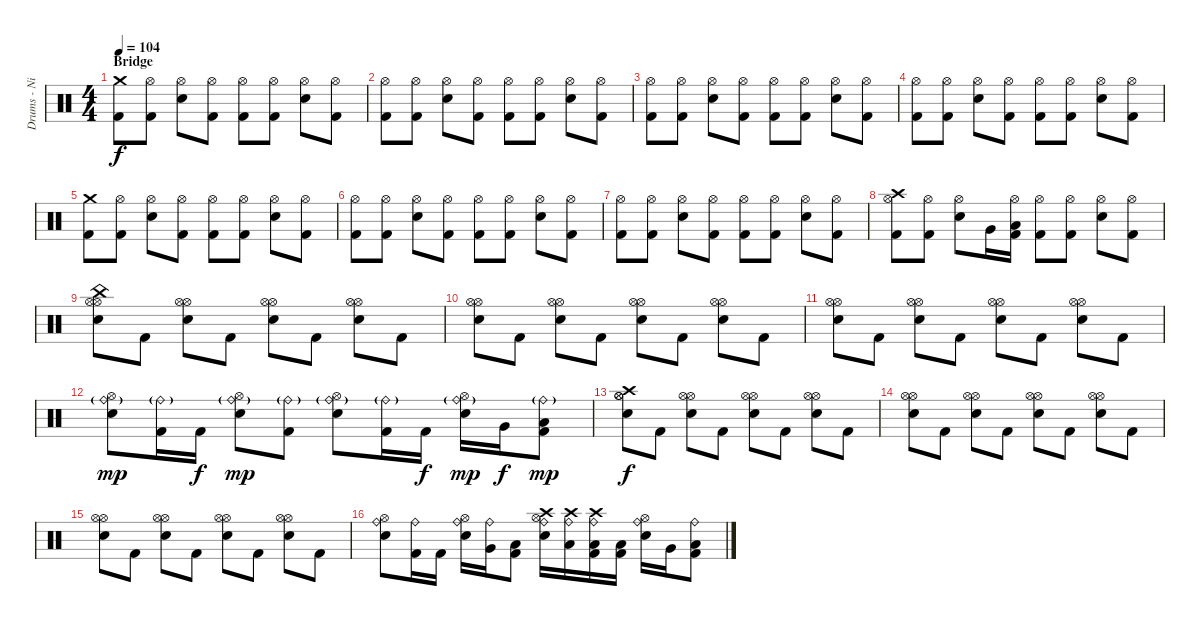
\track ("Drums - Nick Jago" "Drums - Ni") {instrument percussion}
\staff {score}
\articulation defaults
\ts (4 4)
\section ("" "Bridge")
\tempo 104
\clef neutral
\ks c
("Crash medium (hit)" "Kick (hit) 2").8{dy f} ("Hi-Hat (open)" "Kick (hit) 2").8 ("Hi-Hat (open)" "Electric Snare (hit)").8 ("Hi-Hat (open)" "Kick (hit) 2").8 ("Hi-Hat (open)" "Kick (hit) 2").8 ("Hi-Hat (open)" "Kick (hit) 2").8 ("Hi-Hat (open)" "Electric Snare (hit)").8 ("Hi-Hat (open)" "Kick (hit) 2").8 |
("Hi-Hat (open)" "Kick (hit) 2").8 ("Hi-Hat (open)" "Kick (hit) 2").8 ("Hi-Hat (open)" "Electric Snare (hit)").8 ("Hi-Hat (open)" "Kick (hit) 2").8 ("Hi-Hat (open)" "Kick (hit) 2").8 ("Hi-Hat (open)" "Kick (hit) 2").8 ("Hi-Hat (open)" "Electric Snare (hit)").8 ("Hi-Hat (open)" "Kick (hit) 2").8 |
("Hi-Hat (open)" "Kick (hit) 2").8 ("Hi-Hat (open)" "Kick (hit) 2").8 ("Hi-Hat (open)" "Electric Snare (hit)").8 ("Hi-Hat (open)" "Kick (hit) 2").8 ("Hi-Hat (open)" "Kick (hit) 2").8 ("Hi-Hat (open)" "Kick (hit) 2").8 ("Hi-Hat (open)" "Electric Snare (hit)").8 ("Hi-Hat (open)" "Kick (hit) 2").8 |
("Hi-Hat (open)" "Kick (hit) 2").8 ("Hi-Hat (open)" "Kick (hit) 2").8 ("Hi-Hat (open)" "Electric Snare (hit)").8 ("Hi-Hat (open)" "Kick (hit) 2").8 ("Hi-Hat (open)" "Kick (hit) 2").8 ("Hi-Hat (open)" "Kick (hit) 2").8 ("Hi-Hat (open)" "Electric Snare (hit)").8 ("Hi-Hat (open)" "Kick (hit) 2").8 |
("Crash medium (hit)" "Kick (hit) 2").8 ("Hi-Hat (open)" "Kick (hit) 2").8 ("Hi-Hat (open)" "Electric Snare (hit)").8 ("Hi-Hat (open)" "Kick (hit) 2").8 ("Hi-Hat (open)" "Kick (hit) 2").8 ("Hi-Hat (open)" "Kick (hit) 2").8 ("Hi-Hat (open)" "Electric Snare (hit)").8 ("Hi-Hat (open)" "Kick (hit) 2").8 |
("Hi-Hat (open)" "Kick (hit) 2").8 ("Hi-Hat (open)" "Kick (hit) 2").8 ("Hi-Hat (open)" "Electric Snare (hit)").8 ("Hi-Hat (open)" "Kick (hit) 2").8 ("Hi-Hat (open)" "Kick (hit) 2").8 ("Hi-Hat (open)" "Kick (hit) 2").8 ("Hi-Hat (open)" "Electric Snare (hit)").8 ("Hi-Hat (open)" "Kick (hit) 2").8 |
("Hi-Hat (open)" "Kick (hit) 2").8 ("Hi-Hat (open)" "Kick (hit) 2").8 ("Hi-Hat (open)" "Electric Snare (hit)").8 ("Hi-Hat (open)" "Kick (hit) 2").8 ("Hi-Hat (open)" "Kick (hit) 2").8 ("Hi-Hat (open)" "Kick (hit) 2").8 ("Hi-Hat (open)" "Electric Snare (hit)").8 ("Hi-Hat (open)" "Kick (hit) 2").8 |
("Hi-Hat (open)" "Crash high (hit)" "Kick (hit) 2").8 ("Hi-Hat (open)" "Kick (hit) 2").8 ("Hi-Hat (open)" "Electric Snare (hit)").8 "Very Low Tom (hit)".16 ("Hi-Hat (open)" "Low Floor Tom (hit)" "Kick (hit) 2").16 ("Hi-Hat (open)" "Kick (hit) 2").8 ("Hi-Hat (open)" "Kick (hit) 2").8 ("Hi-Hat (open)" "Electric Snare (hit)").8 ("Hi-Hat (open)" "Kick (hit) 2").8 |
("Hi-Hat (open)" "Hi-Hat (open)" "China (hit)" "Electric Snare (hit)").8 "Kick (hit) 2".8 ("Hi-Hat (open)" "Hi-Hat (open)" "Electric Snare (hit)").8 "Kick (hit) 2".8 ("Hi-Hat (open)" "Hi-Hat (open)" "Electric Snare (hit)").8 "Kick (hit) 2".8 ("Hi-Hat (open)" "Hi-Hat (open)" "Electric Snare (hit)").8 "Kick (hit) 2".8 |
("Hi-Hat (open)" "Hi-Hat (open)" "Electric Snare (hit)").8 "Kick (hit) 2".8 ("Hi-Hat (open)" "Hi-Hat (open)" "Electric Snare (hit)").8 "Kick (hit) 2".8 ("Hi-Hat (open)" "Hi-Hat (open)" "Electric Snare (hit)").8 "Kick (hit) 2".8 ("Hi-Hat (open)" "Hi-Hat (open)" "Electric Snare (hit)").8 "Kick (hit) 2".8 |
("Hi-Hat (open)" "Hi-Hat (open)" "Electric Snare (hit)").8 "Kick (hit) 2".8 ("Hi-Hat (open)" "Hi-Hat (open)" "Electric Snare (hit)").8 "Kick (hit) 2".8 ("Hi-Hat (open)" "Hi-Hat (open)" "Electric Snare (hit)").8 "Kick (hit) 2".8 ("Hi-Hat (open)" "Hi-Hat (open)" "Electric Snare (hit)").8 "Kick (hit) 2".8 |
("Hi-Hat (open)" "Ride (bell)"{g} "Electric Snare (hit)").8{dy mp} ("Ride (bell)"{g} "Kick (hit) 2").16 "Kick (hit) 2".16{dy f} ("Hi-Hat (open)" "Ride (bell)"{g} "Electric Snare (hit)").8{dy mp} ("Ride (bell)"{g} "Kick (hit) 2").8 ("Hi-Hat (open)" "Ride (bell)"{g} "Electric Snare (hit)").8 ("Ride (bell)"{g} "Kick (hit) 2").16 "Kick (hit) 2".16{dy f} ("Hi-Hat (open)" "Ride (bell)"{g} "Electric Snare (hit)").16{dy mp} "Very Low Tom (hit)".16{dy f} ("Ride (bell)"{g} "Low Floor Tom (hit)" "Kick (hit) 2").8{dy mp} |
("Hi-Hat (open)" "Hi-Hat (open)" "Crash high (hit)" "Electric Snare (hit)").8{dy f} "Kick (hit) 2".8 ("Hi-Hat (open)" "Hi-Hat (open)" "Electric Snare (hit)").8 "Kick (hit) 2".8 ("Hi-Hat (open)" "Hi-Hat (open)" "Electric Snare (hit)").8 "Kick (hit) 2".8 ("Hi-Hat (open)" "Hi-Hat (open)" "Electric Snare (hit)").8 "Kick (hit) 2".8 |
("Hi-Hat (open)" "Hi-Hat (open)" "Electric Snare (hit)").8 "Kick (hit) 2".8 ("Hi-Hat (open)" "Hi-Hat (open)" "Electric Snare (hit)").8 "Kick (hit) 2".8 ("Hi-Hat (open)" "Hi-Hat (open)" "Electric Snare (hit)").8 "Kick (hit) 2".8 ("Hi-Hat (open)" "Hi-Hat (open)" "Electric Snare (hit)").8 "Kick (hit) 2".8 |
("Hi-Hat (open)" "Hi-Hat (open)" "Electric Snare (hit)").8 "Kick (hit) 2".8 ("Hi-Hat (open)" "Hi-Hat (open)" "Electric Snare (hit)").8 "Kick (hit) 2".8 ("Hi-Hat (open)" "Hi-Hat (open)" "Electric Snare (hit)").8 "Kick (hit) 2".8 ("Hi-Hat (open)" "Hi-Hat (open)" "Electric Snare (hit)").8 "Kick (hit) 2".8 |
("Hi-Hat (open)" "Ride (bell)" "Electric Snare (hit)").8 ("Ride (bell)" "Kick (hit) 2").16 "Kick (hit) 2".16 ("Hi-Hat (open)" "Ride (bell)" "Electric Snare (hit)").16 ("Ride (bell)" "Very Low Tom (hit)").16 ("Low Floor Tom (hit)" "Kick (hit) 2").8 ("Hi-Hat (open)" "Ride (bell)" "Crash high (hit)" "Electric Snare (hit)").16 ("Ride (bell)" "Crash high (hit)" "Low Floor Tom (hit)").16 ("Ride (bell)" "Crash high (hit)" "Low Tom (hit)" "Kick (hit) 2").16 ("Low Floor Tom (hit)" "Kick (hit) 2").16 ("Hi-Hat (open)" "Ride (bell)" "Electric Snare (hit)").16 "Very Low Tom (hit)".16 ("Ride (bell)" "Low Floor Tom (hit)" "Kick (hit) 2").8
